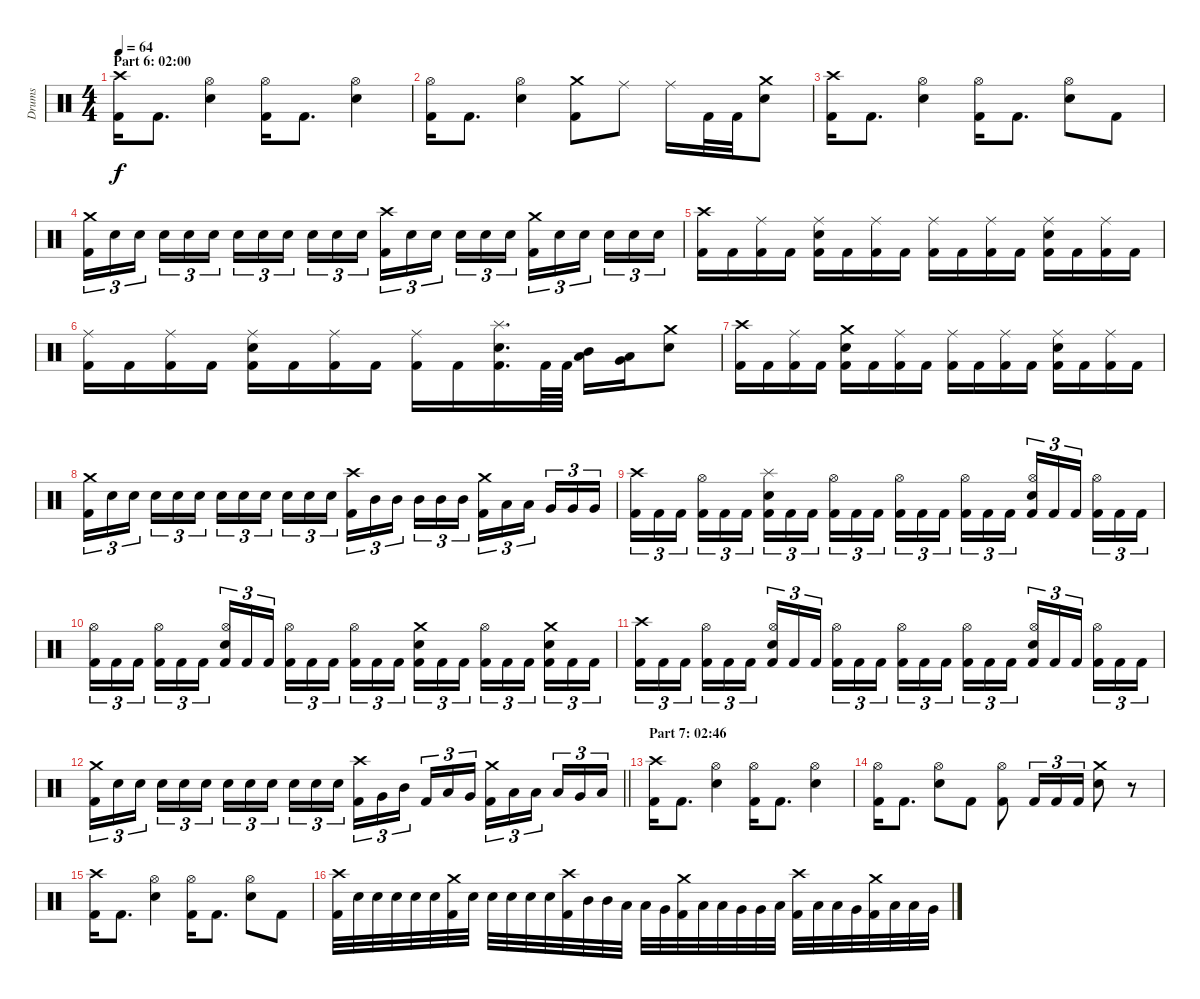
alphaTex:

\track ("Drums" "Drums") {instrument percussion}
\staff {score}
\articulation defaults
\ts (4 4)
\section ("" "Part 6: 02:00")
\tempo 64
\clef neutral
\ks c
("Crash high (hit)" "Kick (hit) 2").16{dy f} "Kick (hit) 2".8{d} ("Hi-Hat (open)" "Electric Snare (hit)").4 ("Hi-Hat (open)" "Kick (hit) 2").16 "Kick (hit) 2".8{d} ("Hi-Hat (open)" "Electric Snare (hit)").4 |
("Hi-Hat (open)" "Kick (hit) 2").16 "Kick (hit) 2".8{d} ("Hi-Hat (open)" "Electric Snare (hit)").4 ("Crash medium (hit)" "Kick (hit) 2").8 "Ride (middle)".8 "Ride (middle)".16 "Kick (hit) 2".32 "Kick (hit) 2".32 ("Crash medium (hit)" "Electric Snare (hit)").8 |
("Crash high (hit)" "Kick (hit) 2").16 "Kick (hit) 2".8{d} ("Hi-Hat (open)" "Electric Snare (hit)").4 ("Hi-Hat (open)" "Kick (hit) 2").16 "Kick (hit) 2".8{d} ("Hi-Hat (open)" "Electric Snare (hit)").8 "Kick (hit) 2".8 |
("Crash medium (hit)" "Kick (hit) 2").16{tu (3 2)} "Electric Snare (hit)".16{tu (3 2)} "Electric Snare (hit)".16{tu (3 2) beam splitsecondary} "Electric Snare (hit)".16{tu (3 2)} "Electric Snare (hit)".16{tu (3 2)} "Electric Snare (hit)".16{tu (3 2)} "Electric Snare (hit)".16{tu (3 2)} "Electric Snare (hit)".16{tu (3 2)} "Electric Snare (hit)".16{tu (3 2) beam splitsecondary} "Electric Snare (hit)".16{tu (3 2)} "Electric Snare (hit)".16{tu (3 2)} "Electric Snare (hit)".16{tu (3 2)} ("Crash high (hit)" "Kick (hit) 2").16{tu (3 2)} "Electric Snare (hit)".16{tu (3 2)} "Electric Snare (hit)".16{tu (3 2) beam splitsecondary} "Electric Snare (hit)".16{tu (3 2)} "Electric Snare (hit)".16{tu (3 2)} "Electric Snare (hit)".16{tu (3 2)} ("Crash medium (hit)" "Kick (hit) 2").16{tu (3 2)} "Electric Snare (hit)".16{tu (3 2)} "Electric Snare (hit)".16{tu (3 2) beam splitsecondary} "Electric Snare (hit)".16{tu (3 2)} "Electric Snare (hit)".16{tu (3 2)} "Electric Snare (hit)".16{tu (3 2)} |
("Crash high (hit)" "Kick (hit) 2").16 "Kick (hit) 2".16 ("Ride (middle)" "Kick (hit) 2").16 "Kick (hit) 2".16 ("Ride (middle)" "Electric Snare (hit)" "Kick (hit) 2").16 "Kick (hit) 2".16 ("Ride (middle)" "Kick (hit) 2").16 "Kick (hit) 2".16 ("Ride (middle)" "Kick (hit) 2").16 "Kick (hit) 2".16 ("Ride (middle)" "Kick (hit) 2").16 "Kick (hit) 2".16 ("Ride (middle)" "Electric Snare (hit)" "Kick (hit) 2").16 "Kick (hit) 2".16 ("Ride (middle)" "Kick (hit) 2").16 "Kick (hit) 2".16 |
("Ride (middle)" "Kick (hit) 2").16 "Kick (hit) 2".16 ("Ride (middle)" "Kick (hit) 2").16 "Kick (hit) 2".16 ("Ride (middle)" "Electric Snare (hit)" "Kick (hit) 2").16 "Kick (hit) 2".16 ("Ride (middle)" "Kick (hit) 2").16 "Kick (hit) 2".16 ("Ride (middle)" "Kick (hit) 2").16 "Kick (hit) 2".16 ("Splash (hit)" "Electric Snare (hit)" "Kick (hit) 2").16{d} "Kick (hit) 2".64 "Kick (hit) 2".64 ("Mid Tom (hit)" "Low Tom (hit)").16 ("Low Tom (hit)" "Very Low Tom (hit)").16 ("Crash medium (hit)" "Electric Snare (hit)").8 |
("Crash high (hit)" "Kick (hit) 2").16 "Kick (hit) 2".16 ("Ride (middle)" "Kick (hit) 2").16 "Kick (hit) 2".16 ("Crash medium (hit)" "Electric Snare (hit)" "Kick (hit) 2").16 "Kick (hit) 2".16 ("Ride (middle)" "Kick (hit) 2").16 "Kick (hit) 2".16 ("Ride (middle)" "Kick (hit) 2").16 "Kick (hit) 2".16 ("Ride (middle)" "Kick (hit) 2").16 "Kick (hit) 2".16 ("Ride (middle)" "Electric Snare (hit)" "Kick (hit) 2").16 "Kick (hit) 2".16 ("Ride (middle)" "Kick (hit) 2").16 "Kick (hit) 2".16 |
("Crash medium (hit)" "Kick (hit) 2").16{tu (3 2)} "Electric Snare (hit)".16{tu (3 2)} "Electric Snare (hit)".16{tu (3 2) beam splitsecondary} "Electric Snare (hit)".16{tu (3 2)} "Electric Snare (hit)".16{tu (3 2)} "Electric Snare (hit)".16{tu (3 2)} "Electric Snare (hit)".16{tu (3 2)} "Electric Snare (hit)".16{tu (3 2)} "Electric Snare (hit)".16{tu (3 2) beam splitsecondary} "Electric Snare (hit)".16{tu (3 2)} "Electric Snare (hit)".16{tu (3 2)} "Electric Snare (hit)".16{tu (3 2)} ("Crash high (hit)" "Kick (hit) 2").16{tu (3 2)} "Mid Tom (hit)".16{tu (3 2)} "Mid Tom (hit)".16{tu (3 2) beam splitsecondary} "Mid Tom (hit)".16{tu (3 2)} "Mid Tom (hit)".16{tu (3 2)} "Mid Tom (hit)".16{tu (3 2)} ("Crash medium (hit)" "Kick (hit) 2").16{tu (3 2)} "Low Tom (hit)".16{tu (3 2)} "Low Tom (hit)".16{tu (3 2) beam splitsecondary} "Very Low Tom (hit)".16{tu (3 2)} "Very Low Tom (hit)".16{tu (3 2)} "Very Low Tom (hit)".16{tu (3 2)} |
("Crash high (hit)" "Kick (hit) 2").16{tu (3 2)} "Kick (hit) 2".16{tu (3 2)} "Kick (hit) 2".16{tu (3 2) beam splitsecondary} ("Hi-Hat (open)" "Kick (hit) 2").16{tu (3 2)} "Kick (hit) 2".16{tu (3 2)} "Kick (hit) 2".16{tu (3 2)} ("Splash (hit)" "Electric Snare (hit)" "Kick (hit) 2").16{tu (3 2)} "Kick (hit) 2".16{tu (3 2)} "Kick (hit) 2".16{tu (3 2) beam splitsecondary} ("Hi-Hat (open)" "Kick (hit) 2").16{tu (3 2)} "Kick (hit) 2".16{tu (3 2)} "Kick (hit) 2".16{tu (3 2)} ("Hi-Hat (open)" "Kick (hit) 2").16{tu (3 2)} "Kick (hit) 2".16{tu (3 2)} "Kick (hit) 2".16{tu (3 2) beam splitsecondary} ("Hi-Hat (open)" "Kick (hit) 2").16{tu (3 2)} "Kick (hit) 2".16{tu (3 2)} "Kick (hit) 2".16{tu (3 2)} ("Hi-Hat (open)" "Electric Snare (hit)" "Kick (hit) 2").16{tu (3 2)} "Kick (hit) 2".16{tu (3 2)} "Kick (hit) 2".16{tu (3 2) beam splitsecondary} ("Hi-Hat (open)" "Kick (hit) 2").16{tu (3 2)} "Kick (hit) 2".16{tu (3 2)} "Kick (hit) 2".16{tu (3 2)} |
("Hi-Hat (open)" "Kick (hit) 2").16{tu (3 2)} "Kick (hit) 2".16{tu (3 2)} "Kick (hit) 2".16{tu (3 2) beam splitsecondary} ("Hi-Hat (open)" "Kick (hit) 2").16{tu (3 2)} "Kick (hit) 2".16{tu (3 2)} "Kick (hit) 2".16{tu (3 2)} ("Hi-Hat (open)" "Electric Snare (hit)" "Kick (hit) 2").16{tu (3 2)} "Kick (hit) 2".16{tu (3 2)} "Kick (hit) 2".16{tu (3 2) beam splitsecondary} ("Hi-Hat (open)" "Kick (hit) 2").16{tu (3 2)} "Kick (hit) 2".16{tu (3 2)} "Kick (hit) 2".16{tu (3 2)} ("Hi-Hat (open)" "Kick (hit) 2").16{tu (3 2)} "Kick (hit) 2".16{tu (3 2)} "Kick (hit) 2".16{tu (3 2) beam splitsecondary} ("Crash medium (hit)" "Electric Snare (hit)" "Kick (hit) 2").16{tu (3 2)} "Kick (hit) 2".16{tu (3 2)} "Kick (hit) 2".16{tu (3 2)} ("Hi-Hat (open)" "Kick (hit) 2").16{tu (3 2)} "Kick (hit) 2".16{tu (3 2)} "Kick (hit) 2".16{tu (3 2) beam splitsecondary} ("Crash medium (hit)" "Electric Snare (hit)" "Kick (hit) 2").16{tu (3 2)} "Kick (hit) 2".16{tu (3 2)} "Kick (hit) 2".16{tu (3 2)} |
("Crash high (hit)" "Kick (hit) 2").16{tu (3 2)} "Kick (hit) 2".16{tu (3 2)} "Kick (hit) 2".16{tu (3 2) beam splitsecondary} ("Hi-Hat (open)" "Kick (hit) 2").16{tu (3 2)} "Kick (hit) 2".16{tu (3 2)} "Kick (hit) 2".16{tu (3 2)} ("Hi-Hat (open)" "Electric Snare (hit)" "Kick (hit) 2").16{tu (3 2)} "Kick (hit) 2".16{tu (3 2)} "Kick (hit) 2".16{tu (3 2) beam splitsecondary} ("Hi-Hat (open)" "Kick (hit) 2").16{tu (3 2)} "Kick (hit) 2".16{tu (3 2)} "Kick (hit) 2".16{tu (3 2)} ("Hi-Hat (open)" "Kick (hit) 2").16{tu (3 2)} "Kick (hit) 2".16{tu (3 2)} "Kick (hit) 2".16{tu (3 2) beam splitsecondary} ("Hi-Hat (open)" "Kick (hit) 2").16{tu (3 2)} "Kick (hit) 2".16{tu (3 2)} "Kick (hit) 2".16{tu (3 2)} ("Hi-Hat (open)" "Electric Snare (hit)" "Kick (hit) 2").16{tu (3 2)} "Kick (hit) 2".16{tu (3 2)} "Kick (hit) 2".16{tu (3 2) beam splitsecondary} ("Hi-Hat (open)" "Kick (hit) 2").16{tu (3 2)} "Kick (hit) 2".16{tu (3 2)} "Kick (hit) 2".16{tu (3 2)} |
\barLineRight lightlight
("Crash medium (hit)" "Kick (hit) 2").16{tu (3 2)} "Electric Snare (hit)".16{tu (3 2)} "Electric Snare (hit)".16{tu (3 2) beam splitsecondary} "Electric Snare (hit)".16{tu (3 2)} "Electric Snare (hit)".16{tu (3 2)} "Electric Snare (hit)".16{tu (3 2)} "Electric Snare (hit)".16{tu (3 2)} "Electric Snare (hit)".16{tu (3 2)} "Electric Snare (hit)".16{tu (3 2) beam splitsecondary} "Electric Snare (hit)".16{tu (3 2)} "Electric Snare (hit)".16{tu (3 2)} "Electric Snare (hit)".16{tu (3 2)} ("Crash high (hit)" "Kick (hit) 2").16{tu (3 2)} "Very Low Tom (hit)".16{tu (3 2)} "Mid Tom (hit)".16{tu (3 2) beam splitsecondary} "Kick (hit) 2".16{tu (3 2)} "Low Tom (hit)".16{tu (3 2)} "Very Low Tom (hit)".16{tu (3 2)} ("Crash medium (hit)" "Kick (hit) 2").16{tu (3 2)} "Low Floor Tom (hit)".16{tu (3 2)} "Low Tom (hit)".16{tu (3 2) beam splitsecondary} "Low Floor Tom (hit)".16{tu (3 2)} "Very Low Tom (hit)".16{tu (3 2)} "Low Floor Tom (hit)".16{tu (3 2)} |
\section ("" "Part 7: 02:46")
("Crash high (hit)" "Kick (hit) 2").16 "Kick (hit) 2".8{d} ("Hi-Hat (open)" "Electric Snare (hit)").4 ("Hi-Hat (open)" "Kick (hit) 2").16 "Kick (hit) 2".8{d} ("Hi-Hat (open)" "Electric Snare (hit)").4 |
("Hi-Hat (open)" "Kick (hit) 2").16 "Kick (hit) 2".8{d} ("Hi-Hat (open)" "Electric Snare (hit)").8 "Kick (hit) 2".8 ("Hi-Hat (open)" "Kick (hit) 2").8 "Kick (hit) 2".16{tu (3 2)} "Kick (hit) 2".16{tu (3 2)} "Kick (hit) 2".16{tu (3 2)} ("Crash medium (hit)" "Electric Snare (hit)").8 r.8 |
("Crash high (hit)" "Kick (hit) 2").16 "Kick (hit) 2".8{d} ("Hi-Hat (open)" "Electric Snare (hit)").4 ("Hi-Hat (open)" "Kick (hit) 2").16 "Kick (hit) 2".8{d} ("Hi-Hat (open)" "Electric Snare (hit)").8 "Kick (hit) 2".8 |
("Crash high (hit)" "Kick (hit) 2").32 "Electric Snare (hit)".32 "Electric Snare (hit)".32 "Electric Snare (hit)".32 "Electric Snare (hit)".32 "Electric Snare (hit)".32 ("Crash medium (hit)" "Kick (hit) 2").32 "Electric Snare (hit)".32 "Electric Snare (hit)".32 "Electric Snare (hit)".32 "Electric Snare (hit)".32 "Electric Snare (hit)".32 ("Crash high (hit)" "Kick (hit) 2").32 "Mid Tom (hit)".32 "Mid Tom (hit)".32 "Low Tom (hit)".32 "Low Tom (hit)".32 "Very Low Tom (hit)".32 ("Crash medium (hit)" "Kick (hit) 2").32 "Low Tom (hit)".32 "Low Tom (hit)".32 "Very Low Tom (hit)".32 "Very Low Tom (hit)".32 "Low Floor Tom (hit)".32 ("Crash high (hit)" "Kick (hit) 2").32 "Low Tom (hit)".32 "Low Tom (hit)".32 "Very Low Tom (hit)".32 ("Crash medium (hit)" "Kick (hit) 2").32 "Low Tom (hit)".32 "Low Tom (hit)".32 "Very Low Tom (hit)".32
